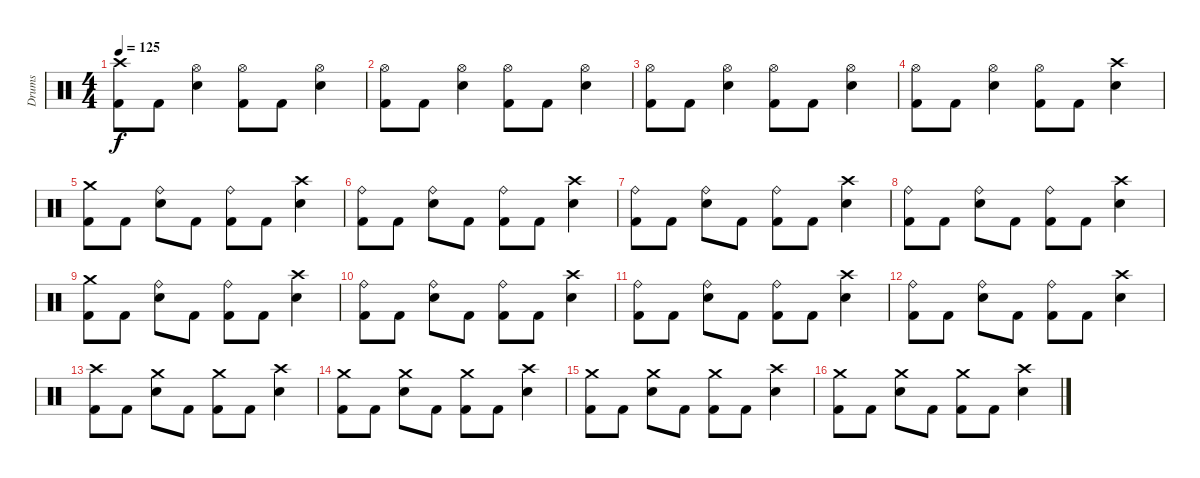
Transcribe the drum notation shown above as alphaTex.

\track ("Drums" "Drums") {instrument percussion}
\staff {score}
\articulation defaults
\ts (4 4)
\tempo 125
\clef neutral
\ks c
("Crash high (hit)" "Kick (hit) 2").8{dy f} "Kick (hit) 2".8 ("Hi-Hat (open)" "Snare (hit) 2").4 ("Hi-Hat (open)" "Kick (hit) 2").8 "Kick (hit) 2".8 ("Hi-Hat (open)" "Snare (hit) 2").4 |
("Hi-Hat (open)" "Kick (hit) 2").8 "Kick (hit) 2".8 ("Hi-Hat (open)" "Snare (hit) 2").4 ("Hi-Hat (open)" "Kick (hit) 2").8 "Kick (hit) 2".8 ("Hi-Hat (open)" "Snare (hit) 2").4 |
("Hi-Hat (open)" "Kick (hit) 2").8 "Kick (hit) 2".8 ("Hi-Hat (open)" "Snare (hit) 2").4 ("Hi-Hat (open)" "Kick (hit) 2").8 "Kick (hit) 2".8 ("Hi-Hat (open)" "Snare (hit) 2").4 |
("Hi-Hat (open)" "Kick (hit) 2").8 "Kick (hit) 2".8 ("Hi-Hat (open)" "Snare (hit) 2").4 ("Hi-Hat (open)" "Kick (hit) 2").8 "Kick (hit) 2".8 ("Crash high (hit)" "Snare (hit) 2").4 |
("Crash medium (hit)" "Kick (hit) 2").8 "Kick (hit) 2".8 ("Ride (bell)" "Snare (hit) 2").8 "Kick (hit) 2".8 ("Ride (bell)" "Kick (hit) 2").8 "Kick (hit) 2".8 ("Crash high (hit)" "Snare (hit) 2").4 |
("Ride (bell)" "Kick (hit) 2").8 "Kick (hit) 2".8 ("Ride (bell)" "Snare (hit) 2").8 "Kick (hit) 2".8 ("Ride (bell)" "Kick (hit) 2").8 "Kick (hit) 2".8 ("Crash high (hit)" "Snare (hit) 2").4 |
("Ride (bell)" "Kick (hit) 2").8 "Kick (hit) 2".8 ("Ride (bell)" "Snare (hit) 2").8 "Kick (hit) 2".8 ("Ride (bell)" "Kick (hit) 2").8 "Kick (hit) 2".8 ("Crash high (hit)" "Snare (hit) 2").4 |
("Ride (bell)" "Kick (hit) 2").8 "Kick (hit) 2".8 ("Ride (bell)" "Snare (hit) 2").8 "Kick (hit) 2".8 ("Ride (bell)" "Kick (hit) 2").8 "Kick (hit) 2".8 ("Crash high (hit)" "Snare (hit) 2").4 |
("Crash medium (hit)" "Kick (hit) 2").8 "Kick (hit) 2".8 ("Ride (bell)" "Snare (hit) 2").8 "Kick (hit) 2".8 ("Ride (bell)" "Kick (hit) 2").8 "Kick (hit) 2".8 ("Crash high (hit)" "Snare (hit) 2").4 |
("Ride (bell)" "Kick (hit) 2").8 "Kick (hit) 2".8 ("Ride (bell)" "Snare (hit) 2").8 "Kick (hit) 2".8 ("Ride (bell)" "Kick (hit) 2").8 "Kick (hit) 2".8 ("Crash high (hit)" "Snare (hit) 2").4 |
("Ride (bell)" "Kick (hit) 2").8 "Kick (hit) 2".8 ("Ride (bell)" "Snare (hit) 2").8 "Kick (hit) 2".8 ("Ride (bell)" "Kick (hit) 2").8 "Kick (hit) 2".8 ("Crash high (hit)" "Snare (hit) 2").4 |
("Ride (bell)" "Kick (hit) 2").8 "Kick (hit) 2".8 ("Ride (bell)" "Snare (hit) 2").8 "Kick (hit) 2".8 ("Ride (bell)" "Kick (hit) 2").8 "Kick (hit) 2".8 ("Crash high (hit)" "Snare (hit) 2").4 |
("Crash high (hit)" "Kick (hit) 2").8 "Kick (hit) 2".8 ("Crash medium (hit)" "Snare (hit) 2").8 "Kick (hit) 2".8 ("Crash medium (hit)" "Kick (hit) 2").8 "Kick (hit) 2".8 ("Crash high (hit)" "Snare (hit) 2").4 |
("Crash medium (hit)" "Kick (hit) 2").8 "Kick (hit) 2".8 ("Crash medium (hit)" "Snare (hit) 2").8 "Kick (hit) 2".8 ("Crash medium (hit)" "Kick (hit) 2").8 "Kick (hit) 2".8 ("Crash high (hit)" "Snare (hit) 2").4 |
("Crash medium (hit)" "Kick (hit) 2").8 "Kick (hit) 2".8 ("Crash medium (hit)" "Snare (hit) 2").8 "Kick (hit) 2".8 ("Crash medium (hit)" "Kick (hit) 2").8 "Kick (hit) 2".8 ("Crash high (hit)" "Snare (hit) 2").4 |
("Crash medium (hit)" "Kick (hit) 2").8 "Kick (hit) 2".8 ("Crash medium (hit)" "Snare (hit) 2").8 "Kick (hit) 2".8 ("Crash medium (hit)" "Kick (hit) 2").8 "Kick (hit) 2".8 ("Crash high (hit)" "Snare (hit) 2").4
